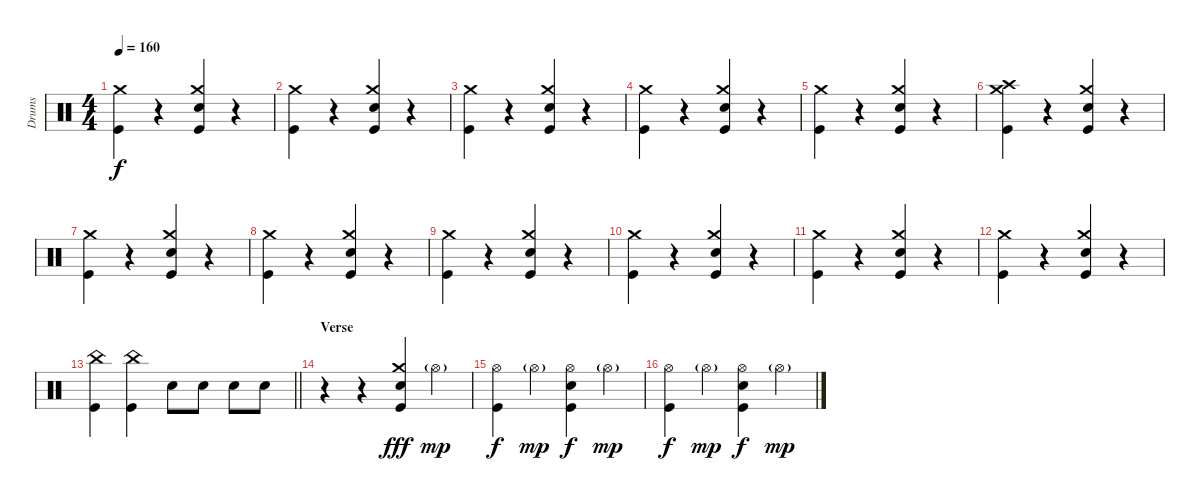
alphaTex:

\track ("Drums" "Drums") {instrument percussion}
\staff {score}
\articulation defaults
\ts (4 4)
\tempo 160
\clef neutral
\ks c
("Kick (hit)" "Crash medium (hit)").4{dy f} r.4 ("Kick (hit)" "Electric Snare (hit)" "Crash medium (hit)").4 r.4 |
("Kick (hit)" "Crash medium (hit)").4 r.4 ("Kick (hit)" "Electric Snare (hit)" "Crash medium (hit)").4 r.4 |
("Kick (hit)" "Crash medium (hit)").4 r.4 ("Kick (hit)" "Electric Snare (hit)" "Crash medium (hit)").4 r.4 |
("Kick (hit)" "Crash medium (hit)").4 r.4 ("Kick (hit)" "Electric Snare (hit)" "Crash medium (hit)").4 r.4 |
("Kick (hit)" "Crash medium (hit)").4 r.4 ("Kick (hit)" "Electric Snare (hit)" "Crash medium (hit)").4 r.4 |
("Kick (hit)" "Crash high (hit)" "Crash medium (hit)").4 r.4 ("Kick (hit)" "Electric Snare (hit)" "Crash medium (hit)").4 r.4 |
("Kick (hit)" "Crash medium (hit)").4 r.4 ("Kick (hit)" "Electric Snare (hit)" "Crash medium (hit)").4 r.4 |
("Kick (hit)" "Crash medium (hit)").4 r.4 ("Kick (hit)" "Electric Snare (hit)" "Crash medium (hit)").4 r.4 |
("Kick (hit)" "Crash medium (hit)").4 r.4 ("Kick (hit)" "Electric Snare (hit)" "Crash medium (hit)").4 r.4 |
("Kick (hit)" "Crash medium (hit)").4 r.4 ("Kick (hit)" "Electric Snare (hit)" "Crash medium (hit)").4 r.4 |
("Kick (hit)" "Crash medium (hit)").4 r.4 ("Kick (hit)" "Electric Snare (hit)" "Crash medium (hit)").4 r.4 |
("Kick (hit)" "Crash medium (hit)").4 r.4 ("Kick (hit)" "Electric Snare (hit)" "Crash medium (hit)").4 r.4 |
\barLineRight lightlight
("Kick (hit)" "China (hit)").4 ("Kick (hit)" "China (hit)").4 "Electric Snare (hit)".8 "Electric Snare (hit)".8 "Electric Snare (hit)".8 "Electric Snare (hit)".8 |
\section ("" "Verse")
r.4 r.4 ("Kick (hit)" "Electric Snare (hit)" "Crash medium (hit)").4{dy fff} "Hi-Hat (open)"{g}.4{dy mp} |
("Kick (hit)" "Hi-Hat (open)").4{dy f} "Hi-Hat (open)"{g}.4{dy mp} ("Kick (hit)" "Electric Snare (hit)" "Hi-Hat (open)").4{dy f} "Hi-Hat (open)"{g}.4{dy mp} |
("Kick (hit)" "Hi-Hat (open)").4{dy f} "Hi-Hat (open)"{g}.4{dy mp} ("Kick (hit)" "Electric Snare (hit)" "Hi-Hat (open)").4{dy f} "Hi-Hat (open)"{g}.4{dy mp}
